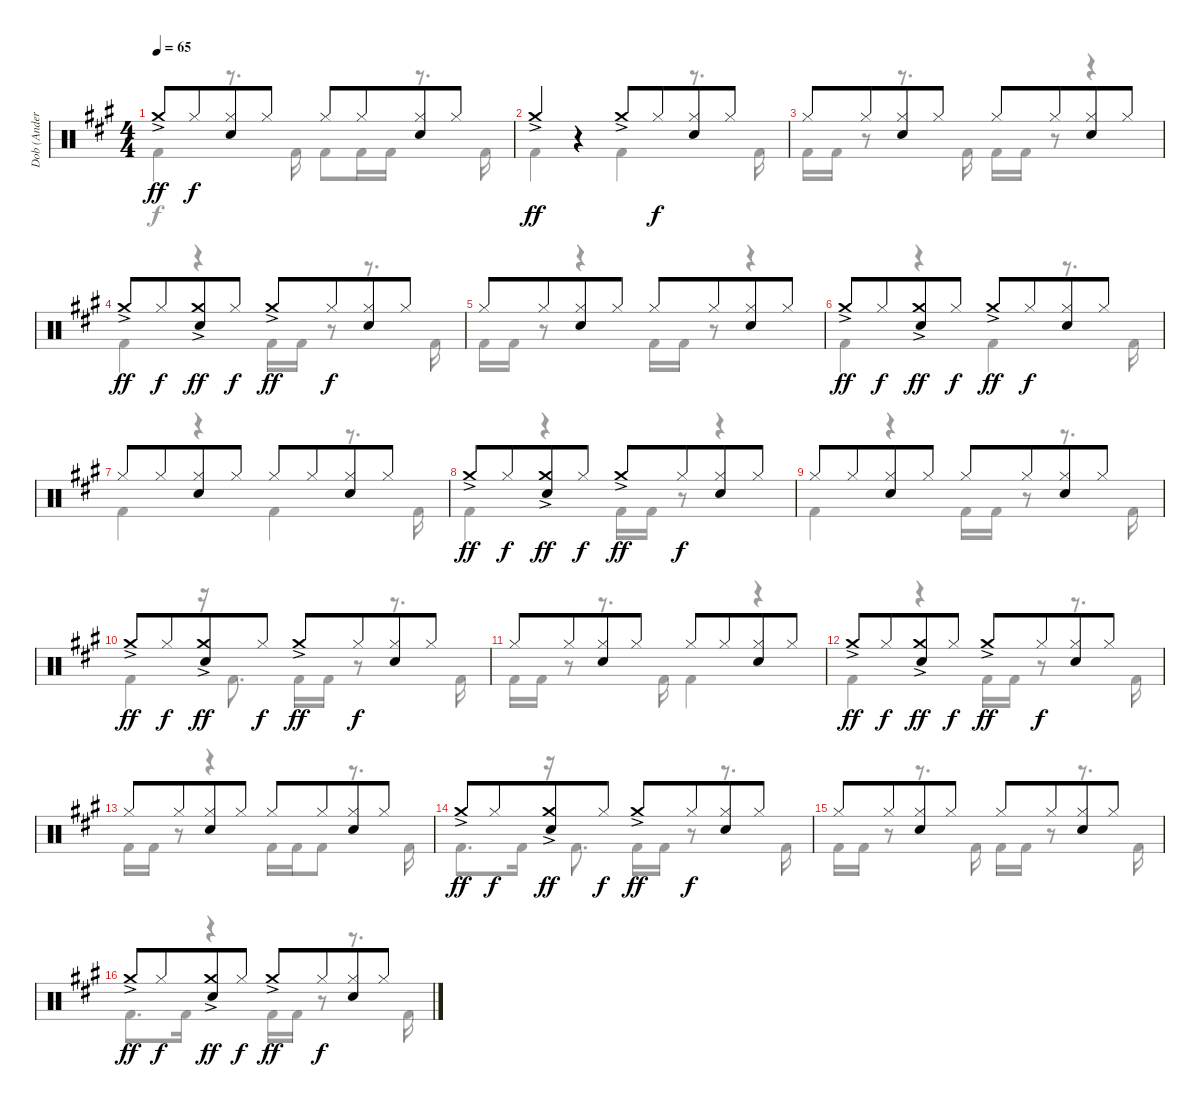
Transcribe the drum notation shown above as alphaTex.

\track ("Dob (Anders Johansson)" "Dob (Ander") {instrument percussion}
\staff {score}
\articulation defaults
\voice
\ts (4 4)
\tempo 65
\clef neutral
\ks a "Crash medium (hit)"{ac}.8{dy ff} "Hi-Hat (closed)".8{dy f beam merge}
("Hi-Hat (closed)" "Electric Snare (hit)").8 "Hi-Hat (closed)".8 "Hi-Hat (closed)".8 "Hi-Hat (closed)".8{beam merge} ("Hi-Hat (closed)" "Electric Snare (hit)").8 "Hi-Hat (closed)".8 |
"Crash medium (hit)"{ac}.4{dy ff} r.4 "Crash medium (hit)"{ac}.8 "Hi-Hat (closed)".8{dy f beam merge} ("Hi-Hat (closed)" "Electric Snare (hit)").8 "Hi-Hat (closed)".8 |
"Hi-Hat (closed)".8 "Hi-Hat (closed)".8{beam merge} ("Hi-Hat (closed)" "Electric Snare (hit)").8 "Hi-Hat (closed)".8 "Hi-Hat (closed)".8 "Hi-Hat (closed)".8{beam merge} ("Hi-Hat (closed)" "Electric Snare (hit)").8 "Hi-Hat (closed)".8 |
"Crash medium (hit)"{ac}.8{dy ff} "Hi-Hat (closed)".8{dy f beam merge} ("Crash medium (hit)"{ac} "Electric Snare (hit)").8{dy ff} "Hi-Hat (closed)".8{dy f} "Crash medium (hit)"{ac}.8{dy ff} "Hi-Hat (closed)".8{dy f beam merge} ("Hi-Hat (closed)" "Electric Snare (hit)").8 "Hi-Hat (closed)".8 |
"Hi-Hat (closed)".8 "Hi-Hat (closed)".8{beam merge} ("Hi-Hat (closed)" "Electric Snare (hit)").8 "Hi-Hat (closed)".8 "Hi-Hat (closed)".8 "Hi-Hat (closed)".8{beam merge} ("Hi-Hat (closed)" "Electric Snare (hit)").8 "Hi-Hat (closed)".8 |
"Crash medium (hit)"{ac}.8{dy ff} "Hi-Hat (closed)".8{dy f beam merge} ("Crash medium (hit)"{ac} "Electric Snare (hit)").8{dy ff} "Hi-Hat (closed)".8{dy f} "Crash medium (hit)"{ac}.8{dy ff} "Hi-Hat (closed)".8{dy f beam merge} ("Hi-Hat (closed)" "Electric Snare (hit)").8 "Hi-Hat (closed)".8 |
"Hi-Hat (closed)".8 "Hi-Hat (closed)".8{beam merge} ("Hi-Hat (closed)" "Electric Snare (hit)").8 "Hi-Hat (closed)".8 "Hi-Hat (closed)".8 "Hi-Hat (closed)".8{beam merge} ("Hi-Hat (closed)" "Electric Snare (hit)").8 "Hi-Hat (closed)".8 |
"Crash medium (hit)"{ac}.8{dy ff} "Hi-Hat (closed)".8{dy f beam merge} ("Crash medium (hit)"{ac} "Electric Snare (hit)").8{dy ff} "Hi-Hat (closed)".8{dy f} "Crash medium (hit)"{ac}.8{dy ff} "Hi-Hat (closed)".8{dy f beam merge} ("Hi-Hat (closed)" "Electric Snare (hit)").8 "Hi-Hat (closed)".8 |
"Hi-Hat (closed)".8 "Hi-Hat (closed)".8{beam merge} ("Hi-Hat (closed)" "Electric Snare (hit)").8 "Hi-Hat (closed)".8 "Hi-Hat (closed)".8 "Hi-Hat (closed)".8{beam merge} ("Hi-Hat (closed)" "Electric Snare (hit)").8 "Hi-Hat (closed)".8 |
"Crash medium (hit)"{ac}.8{dy ff} "Hi-Hat (closed)".8{dy f beam merge} ("Crash medium (hit)"{ac} "Electric Snare (hit)").8{dy ff} "Hi-Hat (closed)".8{dy f} "Crash medium (hit)"{ac}.8{dy ff} "Hi-Hat (closed)".8{dy f beam merge} ("Hi-Hat (closed)" "Electric Snare (hit)").8 "Hi-Hat (closed)".8 |
"Hi-Hat (closed)".8 "Hi-Hat (closed)".8{beam merge} ("Hi-Hat (closed)" "Electric Snare (hit)").8 "Hi-Hat (closed)".8 "Hi-Hat (closed)".8 "Hi-Hat (closed)".8{beam merge} ("Hi-Hat (closed)" "Electric Snare (hit)").8 "Hi-Hat (closed)".8 |
"Crash medium (hit)"{ac}.8{dy ff} "Hi-Hat (closed)".8{dy f beam merge} ("Crash medium (hit)"{ac} "Electric Snare (hit)").8{dy ff} "Hi-Hat (closed)".8{dy f} "Crash medium (hit)"{ac}.8{dy ff} "Hi-Hat (closed)".8{dy f beam merge} ("Hi-Hat (closed)" "Electric Snare (hit)").8 "Hi-Hat (closed)".8 |
"Hi-Hat (closed)".8 "Hi-Hat (closed)".8{beam merge} ("Hi-Hat (closed)" "Electric Snare (hit)").8 "Hi-Hat (closed)".8 "Hi-Hat (closed)".8 "Hi-Hat (closed)".8{beam merge} ("Hi-Hat (closed)" "Electric Snare (hit)").8 "Hi-Hat (closed)".8 |
"Crash medium (hit)"{ac}.8{dy ff} "Hi-Hat (closed)".8{dy f beam merge} ("Crash medium (hit)"{ac} "Electric Snare (hit)").8{dy ff} "Hi-Hat (closed)".8{dy f} "Crash medium (hit)"{ac}.8{dy ff} "Hi-Hat (closed)".8{dy f beam merge} ("Hi-Hat (closed)" "Electric Snare (hit)").8 "Hi-Hat (closed)".8 |
"Hi-Hat (closed)".8 "Hi-Hat (closed)".8{beam merge} ("Hi-Hat (closed)" "Electric Snare (hit)").8 "Hi-Hat (closed)".8 "Hi-Hat (closed)".8 "Hi-Hat (closed)".8{beam merge} ("Hi-Hat (closed)" "Electric Snare (hit)").8 "Hi-Hat (closed)".8 |
"Crash medium (hit)"{ac}.8{dy ff} "Hi-Hat (closed)".8{dy f beam merge} ("Crash medium (hit)"{ac} "Electric Snare (hit)").8{dy ff} "Hi-Hat (closed)".8{dy f} "Crash medium (hit)"{ac}.8{dy ff} "Hi-Hat (closed)".8{dy f beam merge} ("Hi-Hat (closed)" "Electric Snare (hit)").8 "Hi-Hat (closed)".8
\voice
\clef neutral
\ottava regular
\simile none
\ks a "Kick (hit) 2".4{dy f}
r.8{d} "Kick (hit) 2".16 "Kick (hit) 2".8 "Kick (hit) 2".16 "Kick (hit) 2".16 r.8{d} "Kick (hit) 2".16 |
"Kick (hit) 2".4 r.4 "Kick (hit) 2".4 r.8{d} "Kick (hit) 2".16 |
"Kick (hit) 2".16 "Kick (hit) 2".16 r.8 r.8{d} "Kick (hit) 2".16 "Kick (hit) 2".16 "Kick (hit) 2".16 r.8 r.4 |
"Kick (hit) 2".4 r.4 "Kick (hit) 2".16 "Kick (hit) 2".16 r.8 r.8{d} "Kick (hit) 2".16 |
"Kick (hit) 2".16 "Kick (hit) 2".16 r.8 r.4 "Kick (hit) 2".16 "Kick (hit) 2".16 r.8 r.4 |
"Kick (hit) 2".4 r.4 "Kick (hit) 2".4 r.8{d} "Kick (hit) 2".16 |
"Kick (hit) 2".4 r.4 "Kick (hit) 2".4 r.8{d} "Kick (hit) 2".16 |
"Kick (hit) 2".4 r.4 "Kick (hit) 2".16 "Kick (hit) 2".16 r.8 r.4 |
"Kick (hit) 2".4 r.4 "Kick (hit) 2".16 "Kick (hit) 2".16 r.8 r.8{d} "Kick (hit) 2".16 |
"Kick (hit) 2".4 r.16 "Kick (hit) 2".8{d} "Kick (hit) 2".16 "Kick (hit) 2".16 r.8 r.8{d} "Kick (hit) 2".16 |
"Kick (hit) 2".16 "Kick (hit) 2".16 r.8 r.8{d} "Kick (hit) 2".16 "Kick (hit) 2".4 r.4 |
"Kick (hit) 2".4 r.4 "Kick (hit) 2".16 "Kick (hit) 2".16 r.8 r.8{d} "Kick (hit) 2".16 |
"Kick (hit) 2".16 "Kick (hit) 2".16 r.8 r.4 "Kick (hit) 2".16 "Kick (hit) 2".16 "Kick (hit) 2".8 r.8{d} "Kick (hit) 2".16 |
"Kick (hit) 2".8{d} "Kick (hit) 2".16 r.16 "Kick (hit) 2".8{d} "Kick (hit) 2".16 "Kick (hit) 2".16 r.8 r.8{d} "Kick (hit) 2".16 |
"Kick (hit) 2".16 "Kick (hit) 2".16 r.8 r.8{d} "Kick (hit) 2".16 "Kick (hit) 2".16 "Kick (hit) 2".16 r.8 r.8{d} "Kick (hit) 2".16 |
"Kick (hit) 2".8{d} "Kick (hit) 2".16 r.4 "Kick (hit) 2".16 "Kick (hit) 2".16 r.8 r.8{d} "Kick (hit) 2".16
